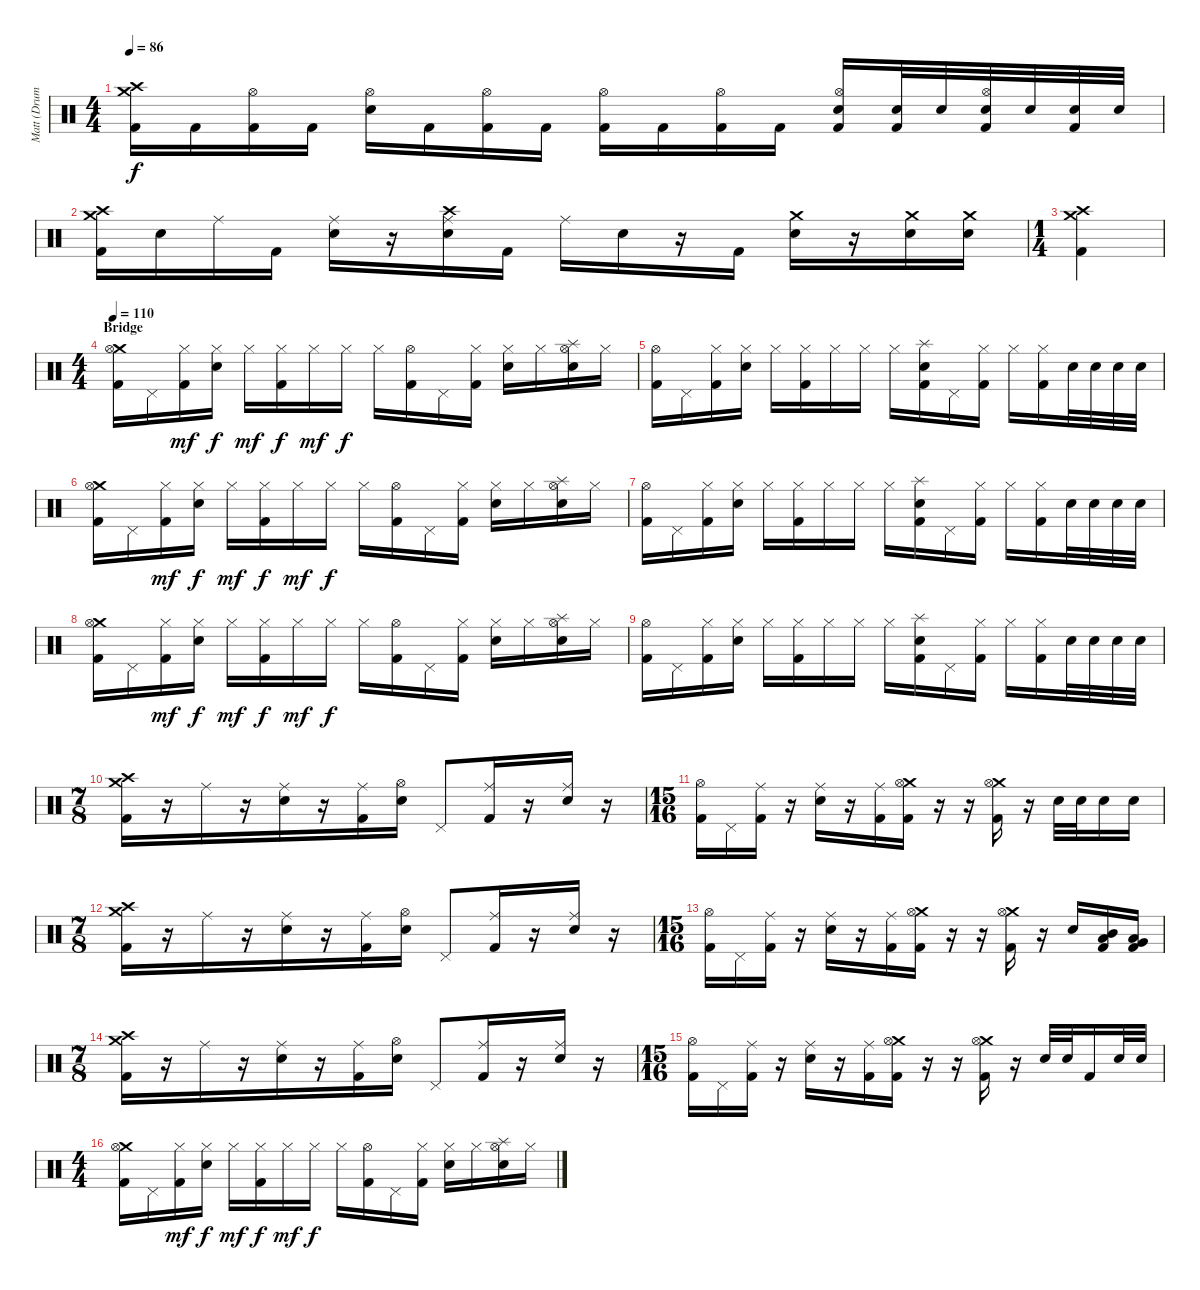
\track ("Matt (Drums)" "Matt (Drum") {instrument percussion}
\staff {score}
\articulation defaults
\ts (4 4)
\tempo 86
\clef neutral
\ks c
("Crash medium (hit)" "Crash high (hit)" "Kick (hit) 2").16{dy f} "Kick (hit) 2".16 ("Hi-Hat (open)" "Kick (hit) 2").16 "Kick (hit) 2".16 ("Hi-Hat (open)" "Snare (hit) 2").16 "Kick (hit) 2".16 ("Hi-Hat (open)" "Kick (hit) 2").16 "Kick (hit) 2".16 ("Hi-Hat (open)" "Kick (hit) 2").16 "Kick (hit) 2".16 ("Hi-Hat (open)" "Kick (hit) 2").16 "Kick (hit) 2".16 ("Hi-Hat (open)" "Snare (hit) 2" "Kick (hit) 2").16 ("Snare (hit) 2" "Kick (hit) 2").32 "Snare (hit) 2".32 ("Hi-Hat (open)" "Snare (hit) 2" "Kick (hit) 2").32 "Snare (hit) 2".32 ("Snare (hit) 2" "Kick (hit) 2").32 "Snare (hit) 2".32 |
("Crash medium (hit)" "Crash high (hit)" "Kick (hit) 2").16 "Snare (hit) 2".16 "Ride (middle)".16 "Kick (hit) 2".16 ("Ride (middle)" "Snare (hit) 2").16 r.16 ("Crash high (hit)" "Ride (middle)" "Snare (hit) 2").16 "Kick (hit) 2".16 "Ride (middle)".16 "Snare (hit) 2".16 r.16 "Kick (hit) 2".16 ("Crash medium (hit)" "Snare (hit) 2").16 r.16 ("Crash medium (hit)" "Snare (hit) 2").16 ("Crash medium (hit)" "Snare (hit) 2").16 |
\ts (1 4)
("Crash medium (hit)" "Crash high (hit)" "Kick (hit) 2").4 |
\ts (4 4)
\section ("" "Bridge")
\tempo 110
("Crash medium (hit)" "Hi-Hat (open)" "Kick (hit) 2").16 "Pedal Hi-Hat (hit)".16 ("Hi-Hat (closed)" "Kick (hit) 2").16{dy mf} ("Hi-Hat (closed)" "Snare (hit) 2").16{dy f} "Hi-Hat (closed)".16{dy mf} ("Hi-Hat (closed)" "Kick (hit) 2").16{dy f} "Hi-Hat (closed)".16{dy mf} "Hi-Hat (closed)".16{dy f} "Hi-Hat (closed)".16 ("Hi-Hat (open)" "Kick (hit) 2").16 "Pedal Hi-Hat (hit)".16 ("Hi-Hat (closed)" "Kick (hit) 2").16 ("Hi-Hat (closed)" "Snare (hit) 2").16 "Hi-Hat (closed)".16 ("Splash (hit)" "Hi-Hat (open)" "Snare (hit) 2").16 "Hi-Hat (closed)".16 |
("Hi-Hat (open)" "Kick (hit) 2").16 "Pedal Hi-Hat (hit)".16 ("Hi-Hat (closed)" "Kick (hit) 2").16 ("Hi-Hat (closed)" "Snare (hit) 2").16 "Hi-Hat (closed)".16 ("Hi-Hat (closed)" "Kick (hit) 2").16 "Hi-Hat (closed)".16 "Hi-Hat (closed)".16 "Hi-Hat (closed)".16 ("Splash (hit)" "Snare (hit) 2" "Kick (hit) 2").16 "Pedal Hi-Hat (hit)".16 ("Hi-Hat (closed)" "Kick (hit) 2").16 "Hi-Hat (closed)".16 ("Hi-Hat (closed)" "Kick (hit) 2").16 "Snare (hit) 2".32 "Snare (hit) 2".32 "Snare (hit) 2".32 "Snare (hit) 2".32 |
("Crash medium (hit)" "Hi-Hat (open)" "Kick (hit) 2").16 "Pedal Hi-Hat (hit)".16 ("Hi-Hat (closed)" "Kick (hit) 2").16{dy mf} ("Hi-Hat (closed)" "Snare (hit) 2").16{dy f} "Hi-Hat (closed)".16{dy mf} ("Hi-Hat (closed)" "Kick (hit) 2").16{dy f} "Hi-Hat (closed)".16{dy mf} "Hi-Hat (closed)".16{dy f} "Hi-Hat (closed)".16 ("Hi-Hat (open)" "Kick (hit) 2").16 "Pedal Hi-Hat (hit)".16 ("Hi-Hat (closed)" "Kick (hit) 2").16 ("Hi-Hat (closed)" "Snare (hit) 2").16 "Hi-Hat (closed)".16 ("Splash (hit)" "Hi-Hat (open)" "Snare (hit) 2").16 "Hi-Hat (closed)".16 |
("Hi-Hat (open)" "Kick (hit) 2").16 "Pedal Hi-Hat (hit)".16 ("Hi-Hat (closed)" "Kick (hit) 2").16 ("Hi-Hat (closed)" "Snare (hit) 2").16 "Hi-Hat (closed)".16 ("Hi-Hat (closed)" "Kick (hit) 2").16 "Hi-Hat (closed)".16 "Hi-Hat (closed)".16 "Hi-Hat (closed)".16 ("Splash (hit)" "Snare (hit) 2" "Kick (hit) 2").16 "Pedal Hi-Hat (hit)".16 ("Hi-Hat (closed)" "Kick (hit) 2").16 "Hi-Hat (closed)".16 ("Hi-Hat (closed)" "Kick (hit) 2").16 "Snare (hit) 2".32 "Snare (hit) 2".32 "Snare (hit) 2".32 "Snare (hit) 2".32 |
("Crash medium (hit)" "Hi-Hat (open)" "Kick (hit) 2").16 "Pedal Hi-Hat (hit)".16 ("Hi-Hat (closed)" "Kick (hit) 2").16{dy mf} ("Hi-Hat (closed)" "Snare (hit) 2").16{dy f} "Hi-Hat (closed)".16{dy mf} ("Hi-Hat (closed)" "Kick (hit) 2").16{dy f} "Hi-Hat (closed)".16{dy mf} "Hi-Hat (closed)".16{dy f} "Hi-Hat (closed)".16 ("Hi-Hat (open)" "Kick (hit) 2").16 "Pedal Hi-Hat (hit)".16 ("Hi-Hat (closed)" "Kick (hit) 2").16 ("Hi-Hat (closed)" "Snare (hit) 2").16 "Hi-Hat (closed)".16 ("Splash (hit)" "Hi-Hat (open)" "Snare (hit) 2").16 "Hi-Hat (closed)".16 |
("Hi-Hat (open)" "Kick (hit) 2").16 "Pedal Hi-Hat (hit)".16 ("Hi-Hat (closed)" "Kick (hit) 2").16 ("Hi-Hat (closed)" "Snare (hit) 2").16 "Hi-Hat (closed)".16 ("Hi-Hat (closed)" "Kick (hit) 2").16 "Hi-Hat (closed)".16 "Hi-Hat (closed)".16 "Hi-Hat (closed)".16 ("Splash (hit)" "Snare (hit) 2" "Kick (hit) 2").16 "Pedal Hi-Hat (hit)".16 ("Hi-Hat (closed)" "Kick (hit) 2").16 "Hi-Hat (closed)".16 ("Hi-Hat (closed)" "Kick (hit) 2").16 "Snare (hit) 2".32 "Snare (hit) 2".32 "Snare (hit) 2".32 "Snare (hit) 2".32 |
\ts (7 8)
("Crash medium (hit)" "Crash high (hit)" "Kick (hit) 2").16 r.16 "Ride (middle)".16 r.16 ("Ride (middle)" "Snare (hit) 2").16 r.16 ("Ride (middle)" "Kick (hit) 2").16 ("Hi-Hat (open)" "Snare (hit) 2").16 "Pedal Hi-Hat (hit)".8 ("Ride (middle)" "Kick (hit) 2").16 r.16 ("Ride (middle)" "Snare (hit) 2").16 r.16 |
\ts (15 16)
("Hi-Hat (open)" "Kick (hit) 2").16 "Pedal Hi-Hat (hit)".16 ("Ride (middle)" "Kick (hit) 2").16 r.16 ("Ride (middle)" "Snare (hit) 2").16 r.16 ("Ride (middle)" "Kick (hit) 2").16 ("Crash medium (hit)" "Hi-Hat (open)" "Kick (hit) 2").16 r.16 r.16 ("Crash medium (hit)" "Hi-Hat (open)" "Kick (hit) 2").16 r.16 "Snare (hit) 2".32 "Snare (hit) 2".32 "Snare (hit) 2".16 "Snare (hit) 2".16 |
\ts (7 8)
("Crash medium (hit)" "Crash high (hit)" "Kick (hit) 2").16 r.16 "Ride (middle)".16 r.16 ("Ride (middle)" "Snare (hit) 2").16 r.16 ("Ride (middle)" "Kick (hit) 2").16 ("Hi-Hat (open)" "Snare (hit) 2").16 "Pedal Hi-Hat (hit)".8 ("Ride (middle)" "Kick (hit) 2").16 r.16 ("Ride (middle)" "Snare (hit) 2").16 r.16 |
\ts (15 16)
("Hi-Hat (open)" "Kick (hit) 2").16 "Pedal Hi-Hat (hit)".16 ("Ride (middle)" "Kick (hit) 2").16 r.16 ("Ride (middle)" "Snare (hit) 2").16 r.16 ("Ride (middle)" "Kick (hit) 2").16 ("Crash medium (hit)" "Hi-Hat (open)" "Kick (hit) 2").16 r.16 r.16 ("Crash medium (hit)" "Hi-Hat (open)" "Kick (hit) 2").16 r.16 "Snare (hit) 2".16 ("Mid Tom (hit)" "Low Tom (hit)" "Kick (hit) 2").16 ("Low Tom (hit)" "Very Low Tom (hit)" "Kick (hit) 2").16 |
\ts (7 8)
("Crash medium (hit)" "Crash high (hit)" "Kick (hit) 2").16 r.16 "Ride (middle)".16 r.16 ("Ride (middle)" "Snare (hit) 2").16 r.16 ("Ride (middle)" "Kick (hit) 2").16 ("Hi-Hat (open)" "Snare (hit) 2").16 "Pedal Hi-Hat (hit)".8 ("Ride (middle)" "Kick (hit) 2").16 r.16 ("Ride (middle)" "Snare (hit) 2").16 r.16 |
\ts (15 16)
("Hi-Hat (open)" "Kick (hit) 2").16 "Pedal Hi-Hat (hit)".16 ("Ride (middle)" "Kick (hit) 2").16 r.16 ("Ride (middle)" "Snare (hit) 2").16 r.16 ("Ride (middle)" "Kick (hit) 2").16 ("Crash medium (hit)" "Hi-Hat (open)" "Kick (hit) 2").16 r.16 r.16 ("Crash medium (hit)" "Hi-Hat (open)" "Kick (hit) 2").16 r.16 "Snare (hit) 2".32 "Snare (hit) 2".32 "Kick (hit) 2".16 "Snare (hit) 2".32 "Snare (hit) 2".32 |
\ts (4 4)
("Crash medium (hit)" "Hi-Hat (open)" "Kick (hit) 2").16 "Pedal Hi-Hat (hit)".16 ("Hi-Hat (closed)" "Kick (hit) 2").16{dy mf} ("Hi-Hat (closed)" "Snare (hit) 2").16{dy f} "Hi-Hat (closed)".16{dy mf} ("Hi-Hat (closed)" "Kick (hit) 2").16{dy f} "Hi-Hat (closed)".16{dy mf} "Hi-Hat (closed)".16{dy f} "Hi-Hat (closed)".16 ("Hi-Hat (open)" "Kick (hit) 2").16 "Pedal Hi-Hat (hit)".16 ("Hi-Hat (closed)" "Kick (hit) 2").16 ("Hi-Hat (closed)" "Snare (hit) 2").16 "Hi-Hat (closed)".16 ("Splash (hit)" "Hi-Hat (open)" "Snare (hit) 2").16 "Hi-Hat (closed)".16
